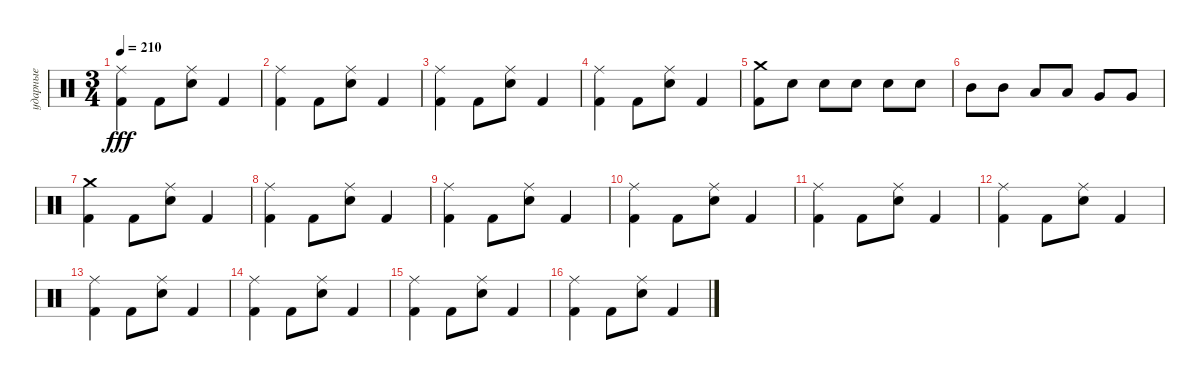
\track ("ударные" "ударные") {instrument percussion}
\staff {score}
\articulation defaults
\ts (3 4)
\tempo 210
\clef neutral
\ks c
("Ride (middle)" "Kick (hit) 2").4{dy fff} "Kick (hit) 2".8 ("Ride (middle)" "Snare (hit) 2").8 "Kick (hit) 2".4 |
("Ride (middle)" "Kick (hit) 2").4 "Kick (hit) 2".8 ("Ride (middle)" "Snare (hit) 2").8 "Kick (hit) 2".4 |
("Ride (middle)" "Kick (hit) 2").4 "Kick (hit) 2".8 ("Ride (middle)" "Snare (hit) 2").8 "Kick (hit) 2".4 |
("Ride (middle)" "Kick (hit) 2").4 "Kick (hit) 2".8 ("Ride (middle)" "Snare (hit) 2").8 "Kick (hit) 2".4 |
("Crash medium (hit)" "Kick (hit) 2").8 "Snare (hit) 2".8 "Snare (hit) 2".8 "Snare (hit) 2".8 "Snare (hit) 2".8 "Snare (hit) 2".8 |
"Mid Tom (hit)".8 "Mid Tom (hit)".8 "Low Tom (hit)".8 "Low Tom (hit)".8 "Very Low Tom (hit)".8 "Very Low Tom (hit)".8 |
("Crash medium (hit)" "Kick (hit) 2").4 "Kick (hit) 2".8 ("Ride (middle)" "Snare (hit) 2").8 "Kick (hit) 2".4 |
("Ride (middle)" "Kick (hit) 2").4 "Kick (hit) 2".8 ("Ride (middle)" "Snare (hit) 2").8 "Kick (hit) 2".4 |
("Ride (middle)" "Kick (hit) 2").4 "Kick (hit) 2".8 ("Ride (middle)" "Snare (hit) 2").8 "Kick (hit) 2".4 |
("Ride (middle)" "Kick (hit) 2").4 "Kick (hit) 2".8 ("Ride (middle)" "Snare (hit) 2").8 "Kick (hit) 2".4 |
("Ride (middle)" "Kick (hit) 2").4 "Kick (hit) 2".8 ("Ride (middle)" "Snare (hit) 2").8 "Kick (hit) 2".4 |
("Ride (middle)" "Kick (hit) 2").4 "Kick (hit) 2".8 ("Ride (middle)" "Snare (hit) 2").8 "Kick (hit) 2".4 |
("Ride (middle)" "Kick (hit) 2").4 "Kick (hit) 2".8 ("Ride (middle)" "Snare (hit) 2").8 "Kick (hit) 2".4 |
("Ride (middle)" "Kick (hit) 2").4 "Kick (hit) 2".8 ("Ride (middle)" "Snare (hit) 2").8 "Kick (hit) 2".4 |
("Ride (middle)" "Kick (hit) 2").4 "Kick (hit) 2".8 ("Ride (middle)" "Snare (hit) 2").8 "Kick (hit) 2".4 |
("Ride (middle)" "Kick (hit) 2").4 "Kick (hit) 2".8 ("Ride (middle)" "Snare (hit) 2").8 "Kick (hit) 2".4
